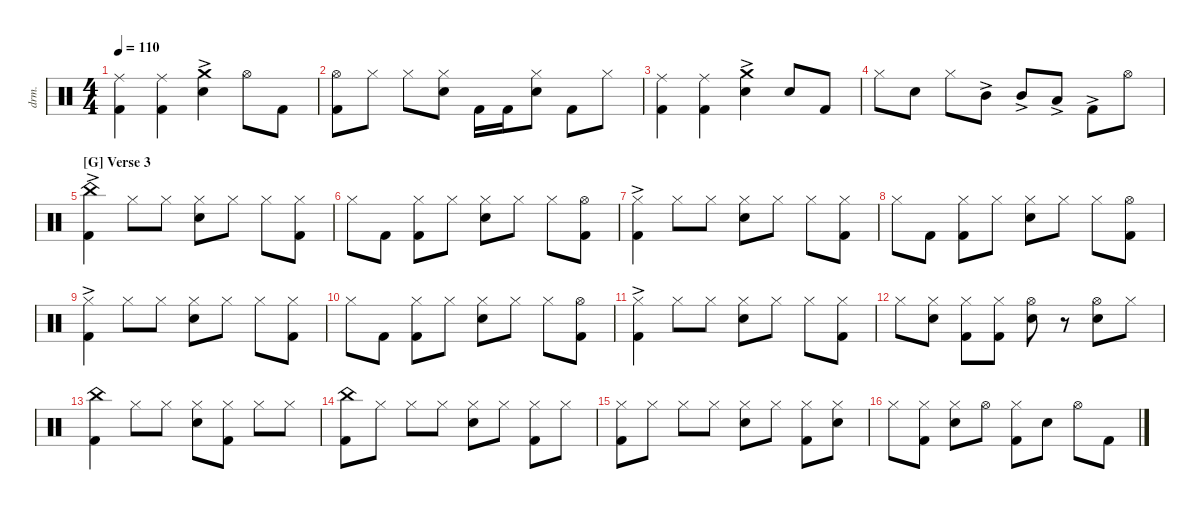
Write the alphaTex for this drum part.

\defaultSystemsLayout 4
\hideDynamics
\bracketExtendMode nobrackets
\otherSystemsTrackNameOrientation horizontal
\track ("Drums" "drm.") {instrument percussion}
\staff {score}
\articulation defaults
\ts (4 4)
\tempo 110
\clef neutral
\ks aminor
("Kick (hit) 2" "Ride (middle)").4{dy f beam Down} ("Kick (hit) 2" "Ride (middle)").4{beam Down} ("Snare (hit) 2"{ac} "Crash medium (hit)"{ac}).4{beam Down} "Hi-Hat (open)".8{beam Down} "Kick (hit) 2".8{beam Down} |
("Kick (hit) 2" "Hi-Hat (open)").8{beam Down} "Hi-Hat (closed)".8{beam Down} "Hi-Hat (closed)".8{beam Down} ("Snare (hit) 2" "Hi-Hat (closed)").8{beam Down} "Kick (hit) 2".16{beam Down} "Kick (hit) 2".16{beam Down} ("Snare (hit) 2" "Hi-Hat (closed)").8{beam Down} "Kick (hit) 2".8{beam Down} "Hi-Hat (closed)".8{beam Down} |
("Kick (hit) 2" "Ride (middle)").4{beam Down} ("Kick (hit) 2" "Ride (middle)").4{beam Down} ("Snare (hit) 2"{ac} "Crash medium (hit)"{ac}).4{beam Down} "Snare (hit) 2".8{beam Up} "Kick (hit) 2".8{beam Up} |
"Hi-Hat (closed)".8{beam Down} "Snare (hit) 2".8{beam Down} "Hi-Hat (closed)".8{beam Down} "Mid Tom (hit)"{ac}.8{beam Down} "Mid Tom (hit)"{ac}.8{beam Up} "Low Tom (hit)"{ac}.8{beam Up} "Kick (hit) 2"{ac}.8{beam Down} "Hi-Hat (open)".8{beam Down} |
\section ("G" "Verse 3")
("Kick (hit) 2"{ac} "China (hit)").4{dy mp beam Down} "Hi-Hat (closed)".8{dy mf beam Down} "Hi-Hat (closed)".8{beam Down} ("Hi-Hat (closed)" "Snare (hit) 2").8{dy mp beam Down} "Hi-Hat (closed)".8{beam Down} "Hi-Hat (closed)".8{beam Down} ("Kick (hit) 2" "Hi-Hat (closed)").8{beam Down} |
"Hi-Hat (closed)".8{beam Down} "Kick (hit) 2".8{beam Down} ("Kick (hit) 2" "Hi-Hat (closed)").8{beam Down} "Hi-Hat (closed)".8{beam Down} ("Hi-Hat (closed)" "Snare (hit) 2").8{beam Down} "Hi-Hat (closed)".8{beam Down} "Hi-Hat (closed)".8{beam Down} ("Kick (hit) 2" "Hi-Hat (open)").8{beam Down} |
("Kick (hit) 2"{ac} "Hi-Hat (closed)").4{beam Down} "Hi-Hat (closed)".8{dy mf beam Down} "Hi-Hat (closed)".8{beam Down} ("Hi-Hat (closed)" "Snare (hit) 2").8{dy mp beam Down} "Hi-Hat (closed)".8{beam Down} "Hi-Hat (closed)".8{beam Down} ("Kick (hit) 2" "Hi-Hat (closed)").8{beam Down} |
"Hi-Hat (closed)".8{dy mf beam Down} "Kick (hit) 2".8{beam Down} ("Kick (hit) 2" "Hi-Hat (closed)").8{beam Down} "Hi-Hat (closed)".8{beam Down} ("Hi-Hat (closed)" "Snare (hit) 2").8{dy mp beam Down} "Hi-Hat (closed)".8{beam Down} "Hi-Hat (closed)".8{beam Down} ("Kick (hit) 2" "Hi-Hat (open)").8{beam Down} |
("Kick (hit) 2"{ac} "Hi-Hat (closed)").4{beam Down} "Hi-Hat (closed)".8{dy mf beam Down} "Hi-Hat (closed)".8{beam Down} ("Hi-Hat (closed)" "Snare (hit) 2").8{dy mp beam Down} "Hi-Hat (closed)".8{beam Down} "Hi-Hat (closed)".8{beam Down} ("Kick (hit) 2" "Hi-Hat (closed)").8{beam Down} |
"Hi-Hat (closed)".8{beam Down} "Kick (hit) 2".8{beam Down} ("Kick (hit) 2" "Hi-Hat (closed)").8{beam Down} "Hi-Hat (closed)".8{beam Down} ("Hi-Hat (closed)" "Snare (hit) 2").8{beam Down} "Hi-Hat (closed)".8{beam Down} "Hi-Hat (closed)".8{beam Down} ("Kick (hit) 2" "Hi-Hat (open)").8{beam Down} |
("Kick (hit) 2"{ac} "Hi-Hat (closed)").4{dy f beam Down} "Hi-Hat (closed)".8{dy mf beam Down} "Hi-Hat (closed)".8{beam Down} ("Snare (hit) 2" "Hi-Hat (closed)").8{beam Down} "Hi-Hat (closed)".8{beam Down} "Hi-Hat (closed)".8{beam Down} ("Kick (hit) 2" "Hi-Hat (closed)").8{beam Down} |
"Hi-Hat (closed)".8{dy f beam Down} ("Hi-Hat (closed)" "Snare (hit) 2").8{beam Down} ("Hi-Hat (closed)" "Kick (hit) 2").8{beam Down} ("Hi-Hat (closed)" "Kick (hit) 2").8{beam Down} ("Hi-Hat (open)" "Snare (hit) 2").8{beam Down} r.8{beam Down} ("Snare (hit) 2" "Hi-Hat (open)").8{beam Down} "Hi-Hat (closed)".8{beam Down} |
("Kick (hit) 2" "China (hit)").4{beam Down} "Hi-Hat (closed)".8{beam Down} "Hi-Hat (closed)".8{beam Down} ("Hi-Hat (closed)" "Snare (hit) 2").8{beam Down} ("Hi-Hat (closed)" "Kick (hit) 2").8{beam Down} "Hi-Hat (closed)".8{beam Down} "Hi-Hat (closed)".8{beam Down} |
("Kick (hit) 2" "China (hit)").8{beam Down} "Hi-Hat (closed)".8{dy mp beam Down} "Hi-Hat (closed)".8{beam Down} "Hi-Hat (closed)".8{beam Down} ("Hi-Hat (closed)" "Snare (hit) 2").8{dy f beam Down} "Hi-Hat (closed)".8{dy mp beam Down} ("Hi-Hat (closed)" "Kick (hit) 2").8{beam Down} "Hi-Hat (closed)".8{beam Down} |
("Kick (hit) 2" "Hi-Hat (closed)").8{beam Down} "Hi-Hat (closed)".8{beam Down} "Hi-Hat (closed)".8{beam Down} "Hi-Hat (closed)".8{beam Down} ("Hi-Hat (closed)" "Snare (hit) 2").8{dy f beam Down} "Hi-Hat (closed)".8{dy mp beam Down} ("Hi-Hat (closed)" "Kick (hit) 2").8{dy f beam Down} ("Hi-Hat (closed)" "Snare (hit) 2").8{beam Down} |
"Hi-Hat (closed)".8{beam Down} ("Hi-Hat (closed)" "Kick (hit) 2").8{beam Down} ("Snare (hit) 2" "Hi-Hat (closed)").8{beam Down} "Hi-Hat (open)".8{beam Down} ("Hi-Hat (closed)" "Kick (hit) 2").8{beam Down} "Snare (hit) 2".8{beam Down} "Hi-Hat (open)".8{beam Down} "Kick (hit) 2".8{beam Down}
